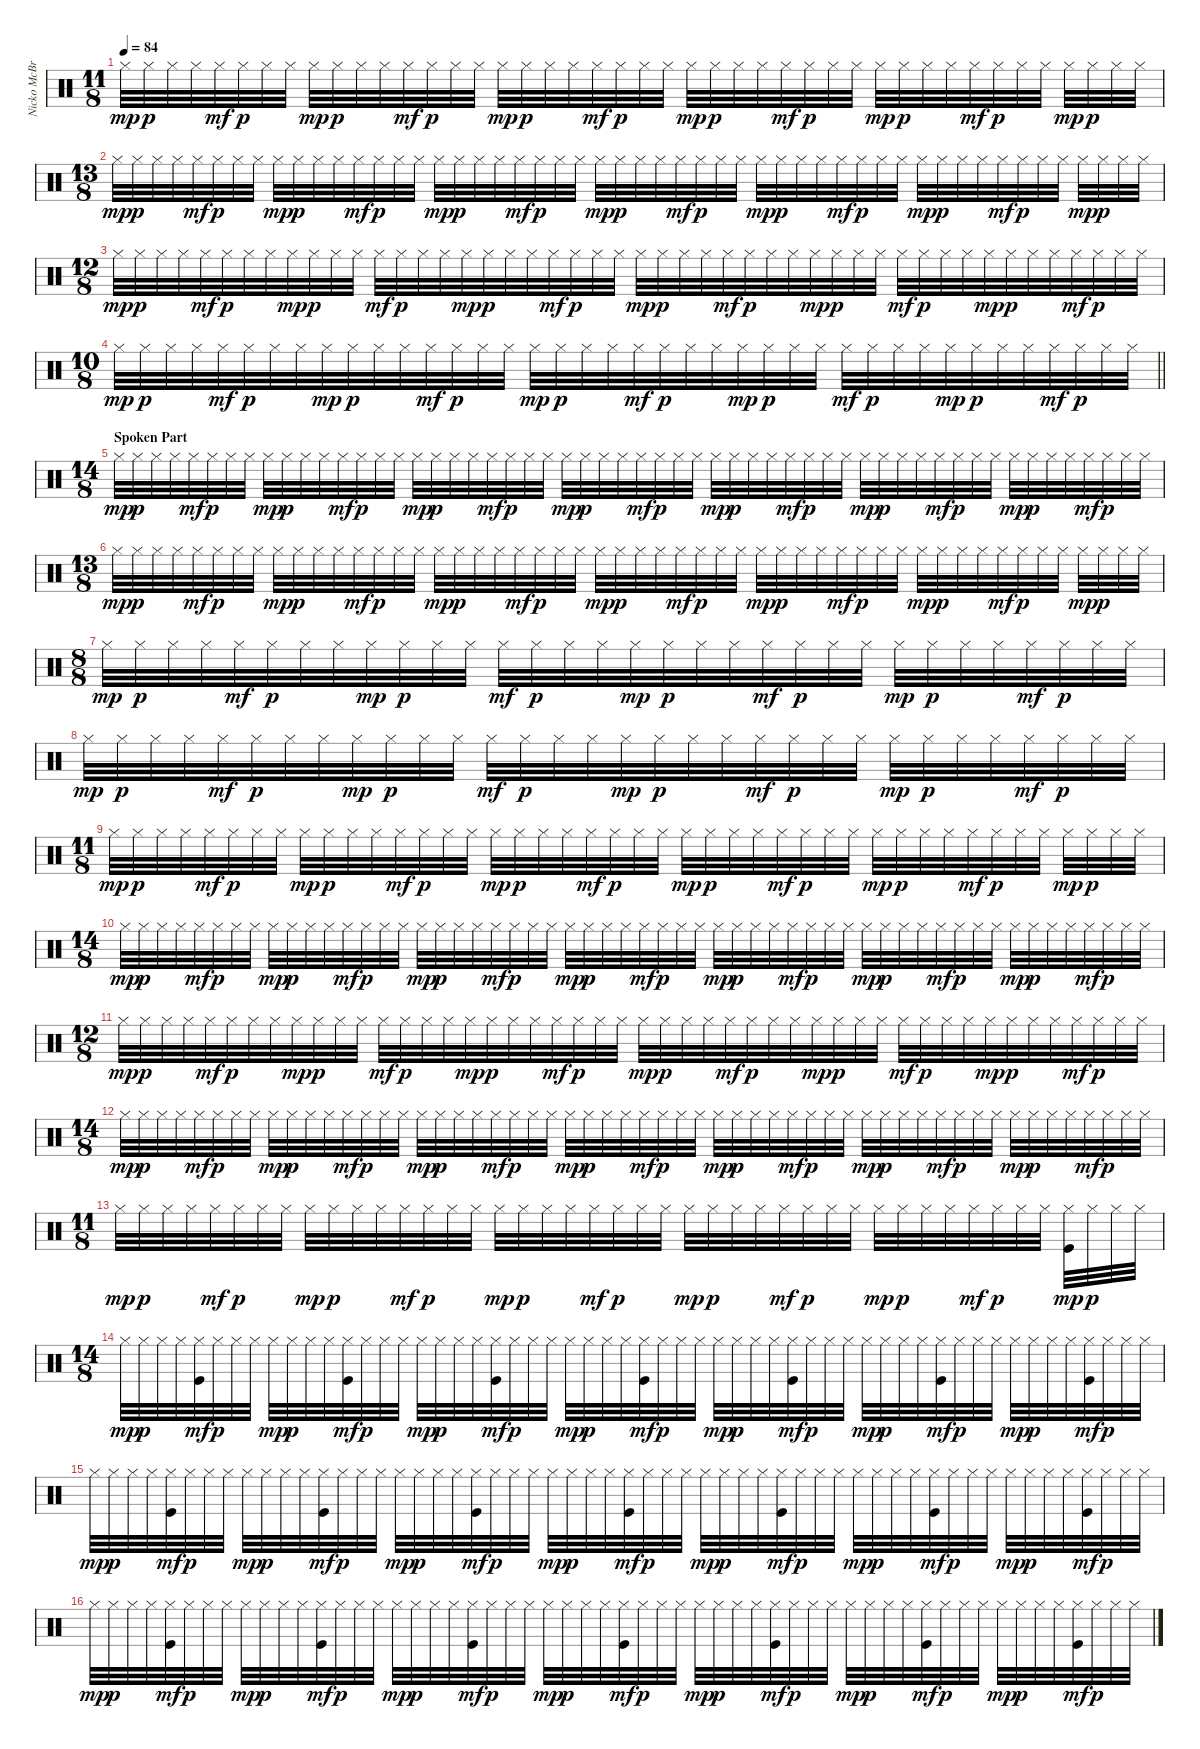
\track ("Nicko McBrain" "Nicko McBr") {instrument percussion}
\staff {score}
\articulation defaults
\ts (11 8)
\tempo 84
\clef neutral
\ks c "Hi-Hat (closed)".32{dy mp} "Hi-Hat (closed)".32{dy p} "Hi-Hat (closed)".32 "Hi-Hat (closed)".32 "Hi-Hat (closed)".32{dy mf} "Hi-Hat (closed)".32{dy p} "Hi-Hat (closed)".32 "Hi-Hat (closed)".32 "Hi-Hat (closed)".32{dy mp} "Hi-Hat (closed)".32{dy p} "Hi-Hat (closed)".32 "Hi-Hat (closed)".32 "Hi-Hat (closed)".32{dy mf} "Hi-Hat (closed)".32{dy p} "Hi-Hat (closed)".32 "Hi-Hat (closed)".32 "Hi-Hat (closed)".32{dy mp} "Hi-Hat (closed)".32{dy p} "Hi-Hat (closed)".32 "Hi-Hat (closed)".32 "Hi-Hat (closed)".32{dy mf} "Hi-Hat (closed)".32{dy p} "Hi-Hat (closed)".32 "Hi-Hat (closed)".32 "Hi-Hat (closed)".32{dy mp} "Hi-Hat (closed)".32{dy p} "Hi-Hat (closed)".32 "Hi-Hat (closed)".32 "Hi-Hat (closed)".32{dy mf} "Hi-Hat (closed)".32{dy p} "Hi-Hat (closed)".32 "Hi-Hat (closed)".32 "Hi-Hat (closed)".32{dy mp} "Hi-Hat (closed)".32{dy p} "Hi-Hat (closed)".32 "Hi-Hat (closed)".32 "Hi-Hat (closed)".32{dy mf} "Hi-Hat (closed)".32{dy p} "Hi-Hat (closed)".32 "Hi-Hat (closed)".32 "Hi-Hat (closed)".32{dy mp} "Hi-Hat (closed)".32{dy p} "Hi-Hat (closed)".32 "Hi-Hat (closed)".32
|
\ts (13 8)
"Hi-Hat (closed)".32{dy mp} "Hi-Hat (closed)".32{dy p} "Hi-Hat (closed)".32 "Hi-Hat (closed)".32 "Hi-Hat (closed)".32{dy mf} "Hi-Hat (closed)".32{dy p} "Hi-Hat (closed)".32 "Hi-Hat (closed)".32 "Hi-Hat (closed)".32{dy mp} "Hi-Hat (closed)".32{dy p} "Hi-Hat (closed)".32 "Hi-Hat (closed)".32 "Hi-Hat (closed)".32{dy mf} "Hi-Hat (closed)".32{dy p} "Hi-Hat (closed)".32 "Hi-Hat (closed)".32 "Hi-Hat (closed)".32{dy mp} "Hi-Hat (closed)".32{dy p} "Hi-Hat (closed)".32 "Hi-Hat (closed)".32 "Hi-Hat (closed)".32{dy mf} "Hi-Hat (closed)".32{dy p} "Hi-Hat (closed)".32 "Hi-Hat (closed)".32 "Hi-Hat (closed)".32{dy mp} "Hi-Hat (closed)".32{dy p} "Hi-Hat (closed)".32 "Hi-Hat (closed)".32 "Hi-Hat (closed)".32{dy mf} "Hi-Hat (closed)".32{dy p} "Hi-Hat (closed)".32 "Hi-Hat (closed)".32 "Hi-Hat (closed)".32{dy mp} "Hi-Hat (closed)".32{dy p} "Hi-Hat (closed)".32 "Hi-Hat (closed)".32 "Hi-Hat (closed)".32{dy mf} "Hi-Hat (closed)".32{dy p} "Hi-Hat (closed)".32 "Hi-Hat (closed)".32 "Hi-Hat (closed)".32{dy mp} "Hi-Hat (closed)".32{dy p} "Hi-Hat (closed)".32 "Hi-Hat (closed)".32 "Hi-Hat (closed)".32{dy mf} "Hi-Hat (closed)".32{dy p} "Hi-Hat (closed)".32 "Hi-Hat (closed)".32 "Hi-Hat (closed)".32{dy mp} "Hi-Hat (closed)".32{dy p} "Hi-Hat (closed)".32 "Hi-Hat (closed)".32 |
\ts (12 8)
"Hi-Hat (closed)".32{dy mp} "Hi-Hat (closed)".32{dy p} "Hi-Hat (closed)".32 "Hi-Hat (closed)".32 "Hi-Hat (closed)".32{dy mf} "Hi-Hat (closed)".32{dy p} "Hi-Hat (closed)".32 "Hi-Hat (closed)".32 "Hi-Hat (closed)".32{dy mp} "Hi-Hat (closed)".32{dy p} "Hi-Hat (closed)".32 "Hi-Hat (closed)".32 "Hi-Hat (closed)".32{dy mf} "Hi-Hat (closed)".32{dy p} "Hi-Hat (closed)".32 "Hi-Hat (closed)".32 "Hi-Hat (closed)".32{dy mp} "Hi-Hat (closed)".32{dy p} "Hi-Hat (closed)".32 "Hi-Hat (closed)".32 "Hi-Hat (closed)".32{dy mf} "Hi-Hat (closed)".32{dy p} "Hi-Hat (closed)".32 "Hi-Hat (closed)".32 "Hi-Hat (closed)".32{dy mp} "Hi-Hat (closed)".32{dy p} "Hi-Hat (closed)".32 "Hi-Hat (closed)".32 "Hi-Hat (closed)".32{dy mf} "Hi-Hat (closed)".32{dy p} "Hi-Hat (closed)".32 "Hi-Hat (closed)".32 "Hi-Hat (closed)".32{dy mp} "Hi-Hat (closed)".32{dy p} "Hi-Hat (closed)".32 "Hi-Hat (closed)".32 "Hi-Hat (closed)".32{dy mf} "Hi-Hat (closed)".32{dy p} "Hi-Hat (closed)".32 "Hi-Hat (closed)".32 "Hi-Hat (closed)".32{dy mp} "Hi-Hat (closed)".32{dy p} "Hi-Hat (closed)".32 "Hi-Hat (closed)".32 "Hi-Hat (closed)".32{dy mf} "Hi-Hat (closed)".32{dy p} "Hi-Hat (closed)".32 "Hi-Hat (closed)".32 |
\ts (10 8)
\barLineRight lightlight "Hi-Hat (closed)".32{dy mp} "Hi-Hat (closed)".32{dy p} "Hi-Hat (closed)".32 "Hi-Hat (closed)".32 "Hi-Hat (closed)".32{dy mf} "Hi-Hat (closed)".32{dy p} "Hi-Hat (closed)".32 "Hi-Hat (closed)".32 "Hi-Hat (closed)".32{dy mp} "Hi-Hat (closed)".32{dy p} "Hi-Hat (closed)".32 "Hi-Hat (closed)".32 "Hi-Hat (closed)".32{dy mf} "Hi-Hat (closed)".32{dy p} "Hi-Hat (closed)".32 "Hi-Hat (closed)".32 "Hi-Hat (closed)".32{dy mp} "Hi-Hat (closed)".32{dy p} "Hi-Hat (closed)".32 "Hi-Hat (closed)".32 "Hi-Hat (closed)".32{dy mf} "Hi-Hat (closed)".32{dy p} "Hi-Hat (closed)".32 "Hi-Hat (closed)".32 "Hi-Hat (closed)".32{dy mp} "Hi-Hat (closed)".32{dy p} "Hi-Hat (closed)".32 "Hi-Hat (closed)".32 "Hi-Hat (closed)".32{dy mf} "Hi-Hat (closed)".32{dy p} "Hi-Hat (closed)".32 "Hi-Hat (closed)".32 "Hi-Hat (closed)".32{dy mp} "Hi-Hat (closed)".32{dy p} "Hi-Hat (closed)".32 "Hi-Hat (closed)".32 "Hi-Hat (closed)".32{dy mf} "Hi-Hat (closed)".32{dy p} "Hi-Hat (closed)".32 "Hi-Hat (closed)".32
|
\ts (14 8)
\section ("" "Spoken Part")
"Hi-Hat (closed)".32{dy mp} "Hi-Hat (closed)".32{dy p} "Hi-Hat (closed)".32 "Hi-Hat (closed)".32 "Hi-Hat (closed)".32{dy mf} "Hi-Hat (closed)".32{dy p} "Hi-Hat (closed)".32 "Hi-Hat (closed)".32 "Hi-Hat (closed)".32{dy mp} "Hi-Hat (closed)".32{dy p} "Hi-Hat (closed)".32 "Hi-Hat (closed)".32 "Hi-Hat (closed)".32{dy mf} "Hi-Hat (closed)".32{dy p} "Hi-Hat (closed)".32 "Hi-Hat (closed)".32 "Hi-Hat (closed)".32{dy mp} "Hi-Hat (closed)".32{dy p} "Hi-Hat (closed)".32 "Hi-Hat (closed)".32 "Hi-Hat (closed)".32{dy mf} "Hi-Hat (closed)".32{dy p} "Hi-Hat (closed)".32 "Hi-Hat (closed)".32 "Hi-Hat (closed)".32{dy mp} "Hi-Hat (closed)".32{dy p} "Hi-Hat (closed)".32 "Hi-Hat (closed)".32 "Hi-Hat (closed)".32{dy mf} "Hi-Hat (closed)".32{dy p} "Hi-Hat (closed)".32 "Hi-Hat (closed)".32 "Hi-Hat (closed)".32{dy mp} "Hi-Hat (closed)".32{dy p} "Hi-Hat (closed)".32 "Hi-Hat (closed)".32 "Hi-Hat (closed)".32{dy mf} "Hi-Hat (closed)".32{dy p} "Hi-Hat (closed)".32 "Hi-Hat (closed)".32 "Hi-Hat (closed)".32{dy mp} "Hi-Hat (closed)".32{dy p} "Hi-Hat (closed)".32 "Hi-Hat (closed)".32 "Hi-Hat (closed)".32{dy mf} "Hi-Hat (closed)".32{dy p} "Hi-Hat (closed)".32 "Hi-Hat (closed)".32 "Hi-Hat (closed)".32{dy mp} "Hi-Hat (closed)".32{dy p} "Hi-Hat (closed)".32 "Hi-Hat (closed)".32 "Hi-Hat (closed)".32{dy mf} "Hi-Hat (closed)".32{dy p} "Hi-Hat (closed)".32 "Hi-Hat (closed)".32 |
\ts (13 8)
"Hi-Hat (closed)".32{dy mp} "Hi-Hat (closed)".32{dy p} "Hi-Hat (closed)".32 "Hi-Hat (closed)".32 "Hi-Hat (closed)".32{dy mf} "Hi-Hat (closed)".32{dy p} "Hi-Hat (closed)".32 "Hi-Hat (closed)".32 "Hi-Hat (closed)".32{dy mp} "Hi-Hat (closed)".32{dy p} "Hi-Hat (closed)".32 "Hi-Hat (closed)".32 "Hi-Hat (closed)".32{dy mf} "Hi-Hat (closed)".32{dy p} "Hi-Hat (closed)".32 "Hi-Hat (closed)".32 "Hi-Hat (closed)".32{dy mp} "Hi-Hat (closed)".32{dy p} "Hi-Hat (closed)".32 "Hi-Hat (closed)".32 "Hi-Hat (closed)".32{dy mf} "Hi-Hat (closed)".32{dy p} "Hi-Hat (closed)".32 "Hi-Hat (closed)".32 "Hi-Hat (closed)".32{dy mp} "Hi-Hat (closed)".32{dy p} "Hi-Hat (closed)".32 "Hi-Hat (closed)".32 "Hi-Hat (closed)".32{dy mf} "Hi-Hat (closed)".32{dy p} "Hi-Hat (closed)".32 "Hi-Hat (closed)".32 "Hi-Hat (closed)".32{dy mp} "Hi-Hat (closed)".32{dy p} "Hi-Hat (closed)".32 "Hi-Hat (closed)".32 "Hi-Hat (closed)".32{dy mf} "Hi-Hat (closed)".32{dy p} "Hi-Hat (closed)".32 "Hi-Hat (closed)".32 "Hi-Hat (closed)".32{dy mp} "Hi-Hat (closed)".32{dy p} "Hi-Hat (closed)".32 "Hi-Hat (closed)".32 "Hi-Hat (closed)".32{dy mf} "Hi-Hat (closed)".32{dy p} "Hi-Hat (closed)".32 "Hi-Hat (closed)".32 "Hi-Hat (closed)".32{dy mp} "Hi-Hat (closed)".32{dy p} "Hi-Hat (closed)".32 "Hi-Hat (closed)".32 |
\ts (8 8)
"Hi-Hat (closed)".32{dy mp} "Hi-Hat (closed)".32{dy p} "Hi-Hat (closed)".32 "Hi-Hat (closed)".32 "Hi-Hat (closed)".32{dy mf} "Hi-Hat (closed)".32{dy p} "Hi-Hat (closed)".32 "Hi-Hat (closed)".32 "Hi-Hat (closed)".32{dy mp} "Hi-Hat (closed)".32{dy p} "Hi-Hat (closed)".32 "Hi-Hat (closed)".32 "Hi-Hat (closed)".32{dy mf} "Hi-Hat (closed)".32{dy p} "Hi-Hat (closed)".32 "Hi-Hat (closed)".32 "Hi-Hat (closed)".32{dy mp} "Hi-Hat (closed)".32{dy p} "Hi-Hat (closed)".32 "Hi-Hat (closed)".32 "Hi-Hat (closed)".32{dy mf} "Hi-Hat (closed)".32{dy p} "Hi-Hat (closed)".32 "Hi-Hat (closed)".32 "Hi-Hat (closed)".32{dy mp} "Hi-Hat (closed)".32{dy p} "Hi-Hat (closed)".32 "Hi-Hat (closed)".32 "Hi-Hat (closed)".32{dy mf} "Hi-Hat (closed)".32{dy p} "Hi-Hat (closed)".32 "Hi-Hat (closed)".32 |
"Hi-Hat (closed)".32{dy mp} "Hi-Hat (closed)".32{dy p} "Hi-Hat (closed)".32 "Hi-Hat (closed)".32 "Hi-Hat (closed)".32{dy mf} "Hi-Hat (closed)".32{dy p} "Hi-Hat (closed)".32 "Hi-Hat (closed)".32 "Hi-Hat (closed)".32{dy mp} "Hi-Hat (closed)".32{dy p} "Hi-Hat (closed)".32 "Hi-Hat (closed)".32 "Hi-Hat (closed)".32{dy mf} "Hi-Hat (closed)".32{dy p} "Hi-Hat (closed)".32 "Hi-Hat (closed)".32 "Hi-Hat (closed)".32{dy mp} "Hi-Hat (closed)".32{dy p} "Hi-Hat (closed)".32 "Hi-Hat (closed)".32 "Hi-Hat (closed)".32{dy mf} "Hi-Hat (closed)".32{dy p} "Hi-Hat (closed)".32 "Hi-Hat (closed)".32 "Hi-Hat (closed)".32{dy mp} "Hi-Hat (closed)".32{dy p} "Hi-Hat (closed)".32 "Hi-Hat (closed)".32 "Hi-Hat (closed)".32{dy mf} "Hi-Hat (closed)".32{dy p} "Hi-Hat (closed)".32 "Hi-Hat (closed)".32 |
\ts (11 8)
"Hi-Hat (closed)".32{dy mp} "Hi-Hat (closed)".32{dy p} "Hi-Hat (closed)".32 "Hi-Hat (closed)".32 "Hi-Hat (closed)".32{dy mf} "Hi-Hat (closed)".32{dy p} "Hi-Hat (closed)".32 "Hi-Hat (closed)".32 "Hi-Hat (closed)".32{dy mp} "Hi-Hat (closed)".32{dy p} "Hi-Hat (closed)".32 "Hi-Hat (closed)".32 "Hi-Hat (closed)".32{dy mf} "Hi-Hat (closed)".32{dy p} "Hi-Hat (closed)".32 "Hi-Hat (closed)".32 "Hi-Hat (closed)".32{dy mp} "Hi-Hat (closed)".32{dy p} "Hi-Hat (closed)".32 "Hi-Hat (closed)".32 "Hi-Hat (closed)".32{dy mf} "Hi-Hat (closed)".32{dy p} "Hi-Hat (closed)".32 "Hi-Hat (closed)".32 "Hi-Hat (closed)".32{dy mp} "Hi-Hat (closed)".32{dy p} "Hi-Hat (closed)".32 "Hi-Hat (closed)".32 "Hi-Hat (closed)".32{dy mf} "Hi-Hat (closed)".32{dy p} "Hi-Hat (closed)".32 "Hi-Hat (closed)".32 "Hi-Hat (closed)".32{dy mp} "Hi-Hat (closed)".32{dy p} "Hi-Hat (closed)".32 "Hi-Hat (closed)".32 "Hi-Hat (closed)".32{dy mf} "Hi-Hat (closed)".32{dy p} "Hi-Hat (closed)".32 "Hi-Hat (closed)".32 "Hi-Hat (closed)".32{dy mp} "Hi-Hat (closed)".32{dy p} "Hi-Hat (closed)".32 "Hi-Hat (closed)".32 |
\ts (14 8)
"Hi-Hat (closed)".32{dy mp} "Hi-Hat (closed)".32{dy p} "Hi-Hat (closed)".32 "Hi-Hat (closed)".32 "Hi-Hat (closed)".32{dy mf} "Hi-Hat (closed)".32{dy p} "Hi-Hat (closed)".32 "Hi-Hat (closed)".32 "Hi-Hat (closed)".32{dy mp} "Hi-Hat (closed)".32{dy p} "Hi-Hat (closed)".32 "Hi-Hat (closed)".32 "Hi-Hat (closed)".32{dy mf} "Hi-Hat (closed)".32{dy p} "Hi-Hat (closed)".32 "Hi-Hat (closed)".32 "Hi-Hat (closed)".32{dy mp} "Hi-Hat (closed)".32{dy p} "Hi-Hat (closed)".32 "Hi-Hat (closed)".32 "Hi-Hat (closed)".32{dy mf} "Hi-Hat (closed)".32{dy p} "Hi-Hat (closed)".32 "Hi-Hat (closed)".32 "Hi-Hat (closed)".32{dy mp} "Hi-Hat (closed)".32{dy p} "Hi-Hat (closed)".32 "Hi-Hat (closed)".32 "Hi-Hat (closed)".32{dy mf} "Hi-Hat (closed)".32{dy p} "Hi-Hat (closed)".32 "Hi-Hat (closed)".32 "Hi-Hat (closed)".32{dy mp} "Hi-Hat (closed)".32{dy p} "Hi-Hat (closed)".32 "Hi-Hat (closed)".32 "Hi-Hat (closed)".32{dy mf} "Hi-Hat (closed)".32{dy p} "Hi-Hat (closed)".32 "Hi-Hat (closed)".32 "Hi-Hat (closed)".32{dy mp} "Hi-Hat (closed)".32{dy p} "Hi-Hat (closed)".32 "Hi-Hat (closed)".32 "Hi-Hat (closed)".32{dy mf} "Hi-Hat (closed)".32{dy p} "Hi-Hat (closed)".32 "Hi-Hat (closed)".32 "Hi-Hat (closed)".32{dy mp} "Hi-Hat (closed)".32{dy p} "Hi-Hat (closed)".32 "Hi-Hat (closed)".32 "Hi-Hat (closed)".32{dy mf} "Hi-Hat (closed)".32{dy p} "Hi-Hat (closed)".32 "Hi-Hat (closed)".32 |
\ts (12 8)
"Hi-Hat (closed)".32{dy mp} "Hi-Hat (closed)".32{dy p} "Hi-Hat (closed)".32 "Hi-Hat (closed)".32 "Hi-Hat (closed)".32{dy mf} "Hi-Hat (closed)".32{dy p} "Hi-Hat (closed)".32 "Hi-Hat (closed)".32 "Hi-Hat (closed)".32{dy mp} "Hi-Hat (closed)".32{dy p} "Hi-Hat (closed)".32 "Hi-Hat (closed)".32 "Hi-Hat (closed)".32{dy mf} "Hi-Hat (closed)".32{dy p} "Hi-Hat (closed)".32 "Hi-Hat (closed)".32 "Hi-Hat (closed)".32{dy mp} "Hi-Hat (closed)".32{dy p} "Hi-Hat (closed)".32 "Hi-Hat (closed)".32 "Hi-Hat (closed)".32{dy mf} "Hi-Hat (closed)".32{dy p} "Hi-Hat (closed)".32 "Hi-Hat (closed)".32 "Hi-Hat (closed)".32{dy mp} "Hi-Hat (closed)".32{dy p} "Hi-Hat (closed)".32 "Hi-Hat (closed)".32 "Hi-Hat (closed)".32{dy mf} "Hi-Hat (closed)".32{dy p} "Hi-Hat (closed)".32 "Hi-Hat (closed)".32 "Hi-Hat (closed)".32{dy mp} "Hi-Hat (closed)".32{dy p} "Hi-Hat (closed)".32 "Hi-Hat (closed)".32 "Hi-Hat (closed)".32{dy mf} "Hi-Hat (closed)".32{dy p} "Hi-Hat (closed)".32 "Hi-Hat (closed)".32 "Hi-Hat (closed)".32{dy mp} "Hi-Hat (closed)".32{dy p} "Hi-Hat (closed)".32 "Hi-Hat (closed)".32 "Hi-Hat (closed)".32{dy mf} "Hi-Hat (closed)".32{dy p} "Hi-Hat (closed)".32 "Hi-Hat (closed)".32 |
\ts (14 8)
"Hi-Hat (closed)".32{dy mp} "Hi-Hat (closed)".32{dy p} "Hi-Hat (closed)".32 "Hi-Hat (closed)".32 "Hi-Hat (closed)".32{dy mf} "Hi-Hat (closed)".32{dy p} "Hi-Hat (closed)".32 "Hi-Hat (closed)".32 "Hi-Hat (closed)".32{dy mp} "Hi-Hat (closed)".32{dy p} "Hi-Hat (closed)".32 "Hi-Hat (closed)".32 "Hi-Hat (closed)".32{dy mf} "Hi-Hat (closed)".32{dy p} "Hi-Hat (closed)".32 "Hi-Hat (closed)".32 "Hi-Hat (closed)".32{dy mp} "Hi-Hat (closed)".32{dy p} "Hi-Hat (closed)".32 "Hi-Hat (closed)".32 "Hi-Hat (closed)".32{dy mf} "Hi-Hat (closed)".32{dy p} "Hi-Hat (closed)".32 "Hi-Hat (closed)".32 "Hi-Hat (closed)".32{dy mp} "Hi-Hat (closed)".32{dy p} "Hi-Hat (closed)".32 "Hi-Hat (closed)".32 "Hi-Hat (closed)".32{dy mf} "Hi-Hat (closed)".32{dy p} "Hi-Hat (closed)".32 "Hi-Hat (closed)".32 "Hi-Hat (closed)".32{dy mp} "Hi-Hat (closed)".32{dy p} "Hi-Hat (closed)".32 "Hi-Hat (closed)".32 "Hi-Hat (closed)".32{dy mf} "Hi-Hat (closed)".32{dy p} "Hi-Hat (closed)".32 "Hi-Hat (closed)".32 "Hi-Hat (closed)".32{dy mp} "Hi-Hat (closed)".32{dy p} "Hi-Hat (closed)".32 "Hi-Hat (closed)".32 "Hi-Hat (closed)".32{dy mf} "Hi-Hat (closed)".32{dy p} "Hi-Hat (closed)".32 "Hi-Hat (closed)".32 "Hi-Hat (closed)".32{dy mp} "Hi-Hat (closed)".32{dy p} "Hi-Hat (closed)".32 "Hi-Hat (closed)".32 "Hi-Hat (closed)".32{dy mf} "Hi-Hat (closed)".32{dy p} "Hi-Hat (closed)".32 "Hi-Hat (closed)".32 |
\ts (11 8)
"Hi-Hat (closed)".32{dy mp} "Hi-Hat (closed)".32{dy p} "Hi-Hat (closed)".32 "Hi-Hat (closed)".32 "Hi-Hat (closed)".32{dy mf} "Hi-Hat (closed)".32{dy p} "Hi-Hat (closed)".32 "Hi-Hat (closed)".32 "Hi-Hat (closed)".32{dy mp} "Hi-Hat (closed)".32{dy p} "Hi-Hat (closed)".32 "Hi-Hat (closed)".32 "Hi-Hat (closed)".32{dy mf} "Hi-Hat (closed)".32{dy p} "Hi-Hat (closed)".32 "Hi-Hat (closed)".32 "Hi-Hat (closed)".32{dy mp} "Hi-Hat (closed)".32{dy p} "Hi-Hat (closed)".32 "Hi-Hat (closed)".32 "Hi-Hat (closed)".32{dy mf} "Hi-Hat (closed)".32{dy p} "Hi-Hat (closed)".32 "Hi-Hat (closed)".32 "Hi-Hat (closed)".32{dy mp} "Hi-Hat (closed)".32{dy p} "Hi-Hat (closed)".32 "Hi-Hat (closed)".32 "Hi-Hat (closed)".32{dy mf} "Hi-Hat (closed)".32{dy p} "Hi-Hat (closed)".32 "Hi-Hat (closed)".32 "Hi-Hat (closed)".32{dy mp} "Hi-Hat (closed)".32{dy p} "Hi-Hat (closed)".32 "Hi-Hat (closed)".32 "Hi-Hat (closed)".32{dy mf} "Hi-Hat (closed)".32{dy p} "Hi-Hat (closed)".32 "Hi-Hat (closed)".32 ("Hi-Hat (closed)" "Kick (hit)").32{dy mp} "Hi-Hat (closed)".32{dy p} "Hi-Hat (closed)".32 "Hi-Hat (closed)".32 |
\ts (14 8)
"Hi-Hat (closed)".32{dy mp} "Hi-Hat (closed)".32{dy p} "Hi-Hat (closed)".32 "Hi-Hat (closed)".32 ("Hi-Hat (closed)" "Kick (hit)").32{dy mf} "Hi-Hat (closed)".32{dy p} "Hi-Hat (closed)".32 "Hi-Hat (closed)".32 "Hi-Hat (closed)".32{dy mp} "Hi-Hat (closed)".32{dy p} "Hi-Hat (closed)".32 "Hi-Hat (closed)".32 ("Hi-Hat (closed)" "Kick (hit)").32{dy mf} "Hi-Hat (closed)".32{dy p} "Hi-Hat (closed)".32 "Hi-Hat (closed)".32 "Hi-Hat (closed)".32{dy mp} "Hi-Hat (closed)".32{dy p} "Hi-Hat (closed)".32 "Hi-Hat (closed)".32 ("Hi-Hat (closed)" "Kick (hit)").32{dy mf} "Hi-Hat (closed)".32{dy p} "Hi-Hat (closed)".32 "Hi-Hat (closed)".32 "Hi-Hat (closed)".32{dy mp} "Hi-Hat (closed)".32{dy p} "Hi-Hat (closed)".32 "Hi-Hat (closed)".32 ("Hi-Hat (closed)" "Kick (hit)").32{dy mf} "Hi-Hat (closed)".32{dy p} "Hi-Hat (closed)".32 "Hi-Hat (closed)".32 "Hi-Hat (closed)".32{dy mp} "Hi-Hat (closed)".32{dy p} "Hi-Hat (closed)".32 "Hi-Hat (closed)".32 ("Hi-Hat (closed)" "Kick (hit)").32{dy mf} "Hi-Hat (closed)".32{dy p} "Hi-Hat (closed)".32 "Hi-Hat (closed)".32 "Hi-Hat (closed)".32{dy mp} "Hi-Hat (closed)".32{dy p} "Hi-Hat (closed)".32 "Hi-Hat (closed)".32 ("Hi-Hat (closed)" "Kick (hit)").32{dy mf} "Hi-Hat (closed)".32{dy p} "Hi-Hat (closed)".32 "Hi-Hat (closed)".32 "Hi-Hat (closed)".32{dy mp} "Hi-Hat (closed)".32{dy p} "Hi-Hat (closed)".32 "Hi-Hat (closed)".32 ("Hi-Hat (closed)" "Kick (hit)").32{dy mf} "Hi-Hat (closed)".32{dy p} "Hi-Hat (closed)".32 "Hi-Hat (closed)".32 |
"Hi-Hat (closed)".32{dy mp} "Hi-Hat (closed)".32{dy p} "Hi-Hat (closed)".32 "Hi-Hat (closed)".32 ("Hi-Hat (closed)" "Kick (hit)").32{dy mf} "Hi-Hat (closed)".32{dy p} "Hi-Hat (closed)".32 "Hi-Hat (closed)".32 "Hi-Hat (closed)".32{dy mp} "Hi-Hat (closed)".32{dy p} "Hi-Hat (closed)".32 "Hi-Hat (closed)".32 ("Hi-Hat (closed)" "Kick (hit)").32{dy mf} "Hi-Hat (closed)".32{dy p} "Hi-Hat (closed)".32 "Hi-Hat (closed)".32 "Hi-Hat (closed)".32{dy mp} "Hi-Hat (closed)".32{dy p} "Hi-Hat (closed)".32 "Hi-Hat (closed)".32 ("Hi-Hat (closed)" "Kick (hit)").32{dy mf} "Hi-Hat (closed)".32{dy p} "Hi-Hat (closed)".32 "Hi-Hat (closed)".32 "Hi-Hat (closed)".32{dy mp} "Hi-Hat (closed)".32{dy p} "Hi-Hat (closed)".32 "Hi-Hat (closed)".32 ("Hi-Hat (closed)" "Kick (hit)").32{dy mf} "Hi-Hat (closed)".32{dy p} "Hi-Hat (closed)".32 "Hi-Hat (closed)".32 "Hi-Hat (closed)".32{dy mp} "Hi-Hat (closed)".32{dy p} "Hi-Hat (closed)".32 "Hi-Hat (closed)".32 ("Hi-Hat (closed)" "Kick (hit)").32{dy mf} "Hi-Hat (closed)".32{dy p} "Hi-Hat (closed)".32 "Hi-Hat (closed)".32 "Hi-Hat (closed)".32{dy mp} "Hi-Hat (closed)".32{dy p} "Hi-Hat (closed)".32 "Hi-Hat (closed)".32 ("Hi-Hat (closed)" "Kick (hit)").32{dy mf} "Hi-Hat (closed)".32{dy p} "Hi-Hat (closed)".32 "Hi-Hat (closed)".32 "Hi-Hat (closed)".32{dy mp} "Hi-Hat (closed)".32{dy p} "Hi-Hat (closed)".32 "Hi-Hat (closed)".32 ("Hi-Hat (closed)" "Kick (hit)").32{dy mf} "Hi-Hat (closed)".32{dy p} "Hi-Hat (closed)".32 "Hi-Hat (closed)".32 |
"Hi-Hat (closed)".32{dy mp} "Hi-Hat (closed)".32{dy p} "Hi-Hat (closed)".32 "Hi-Hat (closed)".32 ("Hi-Hat (closed)" "Kick (hit)").32{dy mf} "Hi-Hat (closed)".32{dy p} "Hi-Hat (closed)".32 "Hi-Hat (closed)".32 "Hi-Hat (closed)".32{dy mp} "Hi-Hat (closed)".32{dy p} "Hi-Hat (closed)".32 "Hi-Hat (closed)".32 ("Hi-Hat (closed)" "Kick (hit)").32{dy mf} "Hi-Hat (closed)".32{dy p} "Hi-Hat (closed)".32 "Hi-Hat (closed)".32 "Hi-Hat (closed)".32{dy mp} "Hi-Hat (closed)".32{dy p} "Hi-Hat (closed)".32 "Hi-Hat (closed)".32 ("Hi-Hat (closed)" "Kick (hit)").32{dy mf} "Hi-Hat (closed)".32{dy p} "Hi-Hat (closed)".32 "Hi-Hat (closed)".32 "Hi-Hat (closed)".32{dy mp} "Hi-Hat (closed)".32{dy p} "Hi-Hat (closed)".32 "Hi-Hat (closed)".32 ("Hi-Hat (closed)" "Kick (hit)").32{dy mf} "Hi-Hat (closed)".32{dy p} "Hi-Hat (closed)".32 "Hi-Hat (closed)".32 "Hi-Hat (closed)".32{dy mp} "Hi-Hat (closed)".32{dy p} "Hi-Hat (closed)".32 "Hi-Hat (closed)".32 ("Hi-Hat (closed)" "Kick (hit)").32{dy mf} "Hi-Hat (closed)".32{dy p} "Hi-Hat (closed)".32 "Hi-Hat (closed)".32 "Hi-Hat (closed)".32{dy mp} "Hi-Hat (closed)".32{dy p} "Hi-Hat (closed)".32 "Hi-Hat (closed)".32 ("Hi-Hat (closed)" "Kick (hit)").32{dy mf} "Hi-Hat (closed)".32{dy p} "Hi-Hat (closed)".32 "Hi-Hat (closed)".32 "Hi-Hat (closed)".32{dy mp} "Hi-Hat (closed)".32{dy p} "Hi-Hat (closed)".32 "Hi-Hat (closed)".32 ("Hi-Hat (closed)" "Kick (hit)").32{dy mf} "Hi-Hat (closed)".32{dy p} "Hi-Hat (closed)".32 "Hi-Hat (closed)".32
